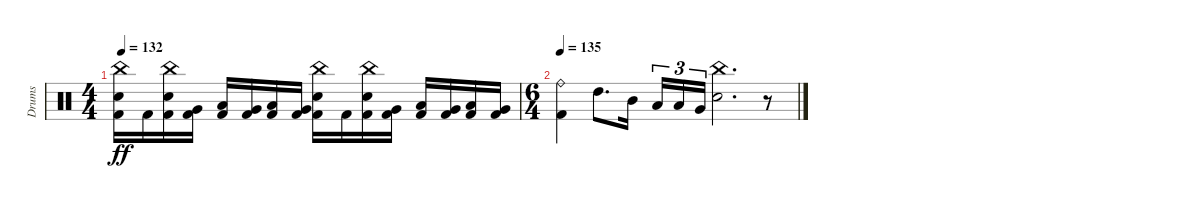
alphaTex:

\track ("Drums" "Drums") {instrument percussion}
\staff {score}
\articulation defaults
\ts (4 4)
\tempo 132
\clef neutral
\ks c
("China (hit)" "Electric Snare (hit)" "Kick (hit) 2").16{dy ff} "Kick (hit) 2".16 ("China (hit)" "Electric Snare (hit)" "Kick (hit) 2").16 ("Very Low Tom (hit)" "Kick (hit) 2").16 ("Low Tom (hit)" "Kick (hit) 2").16 ("Very Low Tom (hit)" "Kick (hit) 2").16 ("Low Tom (hit)" "Kick (hit) 2").16 ("Very Low Tom (hit)" "Kick (hit) 2").16 ("China (hit)" "Electric Snare (hit)" "Kick (hit) 2").16 "Kick (hit) 2".16 ("China (hit)" "Electric Snare (hit)" "Kick (hit) 2").16 ("Very Low Tom (hit)" "Kick (hit) 2").16 ("Low Tom (hit)" "Kick (hit) 2").16 ("Very Low Tom (hit)" "Kick (hit) 2").16 ("Low Tom (hit)" "Kick (hit) 2").16 ("Very Low Tom (hit)" "Kick (hit) 2").16 |
\ts (6 4)
\tempo 135
("Ride (bell)" "Kick (hit) 2").4 "High Tom (hit)".8{d} "Mid Tom (hit)".16{beam splitsecondary} "Low Tom (hit)".16{tu (3 2)} "Low Tom (hit)".16{tu (3 2)} "Very Low Tom (hit)".16{tu (3 2)} ("China (hit)" "Electric Snare (hit)").2{d} r.8
